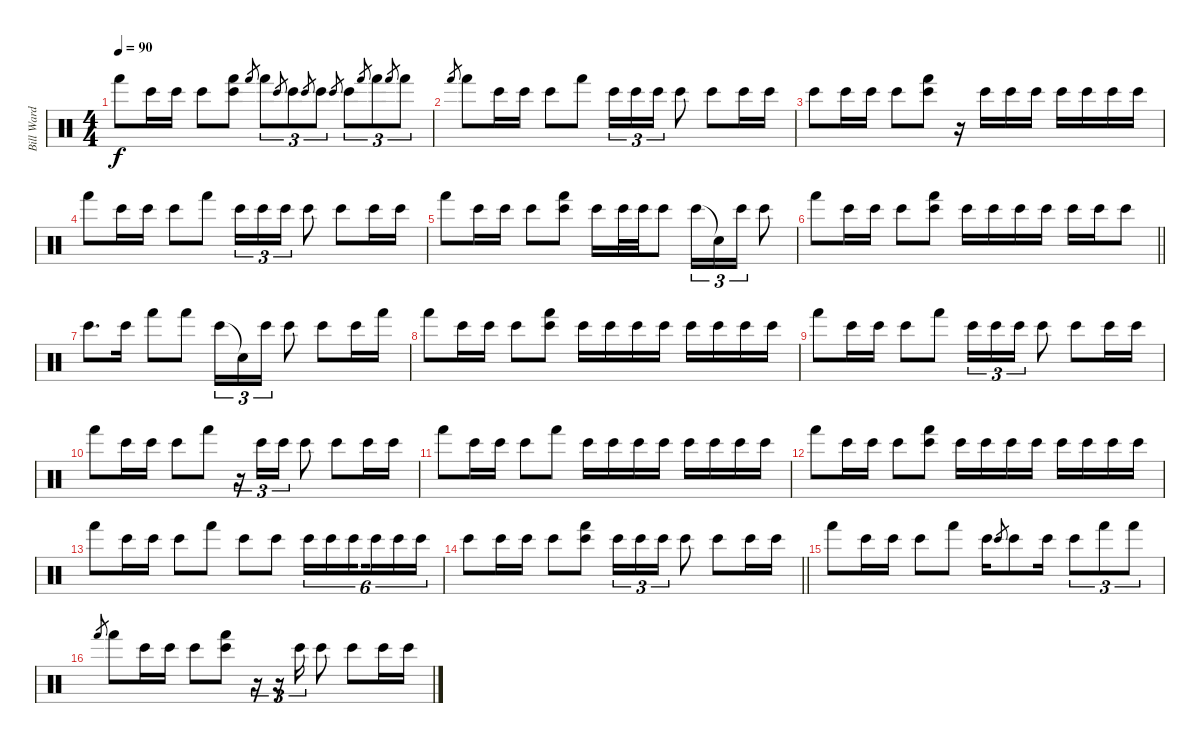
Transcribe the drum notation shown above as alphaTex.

\track ("Bill Ward" "Bill Ward") {instrument percussion}
\staff {score}
\articulation defaults
\ts (4 4)
\tempo 90
\clef neutral
\ks c "Hand (hit)".8{dy f} "Bongo High (hit)".16 "Bongo High (hit)".16 "Bongo High (hit)".8
("Bongo High (hit)" "Hand (hit)").8 "Hand (hit)".8{gr} "Hand (hit)".8{tu (3 2)} "Bongo High (hit)".8{gr} "Bongo High (hit)".8{tu (3 2)} "Bongo High (hit)".8{gr} "Bongo High (hit)".8{tu (3 2)} "Bongo High (hit)".8{gr} "Bongo High (hit)".8{tu (3 2)} "Hand (hit)".8{gr} "Hand (hit)".8{tu (3 2)} "Hand (hit)".8{gr} "Hand (hit)".8{tu (3 2)} |
"Hand (hit)".8{gr} "Hand (hit)".8 "Bongo High (hit)".16 "Bongo High (hit)".16 "Bongo High (hit)".8 "Hand (hit)".8 "Bongo High (hit)".16{tu (3 2)} "Bongo High (hit)".16{tu (3 2)} "Bongo High (hit)".16{tu (3 2)} "Bongo High (hit)".8 "Bongo High (hit)".8 "Bongo High (hit)".16 "Bongo High (hit)".16 |
"Bongo High (hit)".8 "Bongo High (hit)".16 "Bongo High (hit)".16 "Bongo High (hit)".8 ("Bongo High (hit)" "Hand (hit)").8 r.16 "Bongo High (hit)".16 "Bongo High (hit)".16 "Bongo High (hit)".16 "Bongo High (hit)".16 "Bongo High (hit)".16 "Bongo High (hit)".16 "Bongo High (hit)".16 |
"Hand (hit)".8 "Bongo High (hit)".16 "Bongo High (hit)".16 "Bongo High (hit)".8 "Hand (hit)".8 "Bongo High (hit)".16{tu (3 2)} "Bongo High (hit)".16{tu (3 2)} "Bongo High (hit)".16{tu (3 2)} "Bongo High (hit)".8 "Bongo High (hit)".8 "Bongo High (hit)".16 "Bongo High (hit)".16 |
"Hand (hit)".8 "Bongo High (hit)".16 "Bongo High (hit)".16 "Bongo High (hit)".8 ("Bongo High (hit)" "Hand (hit)").8 "Bongo High (hit)".16 "Bongo High (hit)".32 "Bongo High (hit)".32 "Bongo High (hit)".8 "Bongo High (hit)".16{tu (3 2)} "Snare (hit)"{t}.16{tu (3 2)} "Bongo High (hit)".16{tu (3 2)} "Bongo High (hit)".8 |
\barLineRight lightlight "Hand (hit)".8 "Bongo High (hit)".16 "Bongo High (hit)".16 "Bongo High (hit)".8
("Bongo High (hit)" "Hand (hit)").8 "Bongo High (hit)".16 "Bongo High (hit)".16 "Bongo High (hit)".16 "Bongo High (hit)".16 "Bongo High (hit)".16 "Bongo High (hit)".16 "Bongo High (hit)".8 |
"Bongo High (hit)".8{d} "Bongo High (hit)".16 "Hand (hit)".8 "Hand (hit)".8 "Bongo High (hit)".16{tu (3 2)} "Snare (hit)"{t}.16{tu (3 2)} "Bongo High (hit)".16{tu (3 2)} "Bongo High (hit)".8 "Bongo High (hit)".8 "Bongo High (hit)".16 "Hand (hit)".16 |
"Hand (hit)".8 "Bongo High (hit)".16 "Bongo High (hit)".16 "Bongo High (hit)".8 ("Bongo High (hit)" "Hand (hit)").8 "Bongo High (hit)".16 "Bongo High (hit)".16 "Bongo High (hit)".16 "Bongo High (hit)".16 "Bongo High (hit)".16 "Bongo High (hit)".16 "Bongo High (hit)".16 "Bongo High (hit)".16 |
"Hand (hit)".8 "Bongo High (hit)".16 "Bongo High (hit)".16 "Bongo High (hit)".8 "Hand (hit)".8 "Bongo High (hit)".16{tu (3 2)} "Bongo High (hit)".16{tu (3 2)} "Bongo High (hit)".16{tu (3 2)} "Bongo High (hit)".8 "Bongo High (hit)".8 "Bongo High (hit)".16 "Bongo High (hit)".16 |
"Hand (hit)".8 "Bongo High (hit)".16 "Bongo High (hit)".16 "Bongo High (hit)".8 "Hand (hit)".8 r.16{tu (3 2)} "Bongo High (hit)".16{tu (3 2)} "Bongo High (hit)".16{tu (3 2)} "Bongo High (hit)".8 "Bongo High (hit)".8 "Bongo High (hit)".16 "Bongo High (hit)".16 |
"Hand (hit)".8 "Bongo High (hit)".16 "Bongo High (hit)".16 "Bongo High (hit)".8 "Hand (hit)".8 "Bongo High (hit)".16 "Bongo High (hit)".16 "Bongo High (hit)".16 "Bongo High (hit)".16 "Bongo High (hit)".16 "Bongo High (hit)".16 "Bongo High (hit)".16 "Bongo High (hit)".16 |
"Hand (hit)".8 "Bongo High (hit)".16 "Bongo High (hit)".16 "Bongo High (hit)".8 ("Bongo High (hit)" "Hand (hit)").8 "Bongo High (hit)".16 "Bongo High (hit)".16 "Bongo High (hit)".16 "Bongo High (hit)".16 "Bongo High (hit)".16 "Bongo High (hit)".16 "Bongo High (hit)".16 "Bongo High (hit)".16 |
"Hand (hit)".8 "Bongo High (hit)".16 "Bongo High (hit)".16 "Bongo High (hit)".8 "Hand (hit)".8 "Bongo High (hit)".8 "Bongo High (hit)".8 "Bongo High (hit)".16{tu (6 4)} "Bongo High (hit)".16{tu (6 4)} "Bongo High (hit)".16{tu (6 4) beam splitsecondary} "Bongo High (hit)".16{tu (6 4)} "Bongo High (hit)".16{tu (6 4)} "Bongo High (hit)".16{tu (6 4)} |
\barLineRight lightlight "Bongo High (hit)".8 "Bongo High (hit)".16 "Bongo High (hit)".16 "Bongo High (hit)".8
("Bongo High (hit)" "Hand (hit)").8 "Bongo High (hit)".16{tu (3 2)} "Bongo High (hit)".16{tu (3 2)} "Bongo High (hit)".16{tu (3 2)} "Bongo High (hit)".8 "Bongo High (hit)".8 "Bongo High (hit)".16 "Bongo High (hit)".16 |
"Hand (hit)".8 "Bongo High (hit)".16 "Bongo High (hit)".16 "Bongo High (hit)".8 "Hand (hit)".8 "Bongo High (hit)".16 "Bongo High (hit)".8{gr} "Bongo High (hit)".8 "Bongo High (hit)".16 "Bongo High (hit)".8{tu (3 2)} "Hand (hit)".8{tu (3 2)} "Hand (hit)".8{tu (3 2)} |
"Hand (hit)".8{gr} "Hand (hit)".8{volume 8} "Bongo High (hit)".16 "Bongo High (hit)".16 "Bongo High (hit)".8 ("Bongo High (hit)" "Hand (hit)").8 r.16{tu (3 2)} r.16{tu (3 2)} "Bongo High (hit)".16{tu (3 2)} "Bongo High (hit)".8 "Bongo High (hit)".8 "Bongo High (hit)".16 "Bongo High (hit)".16
